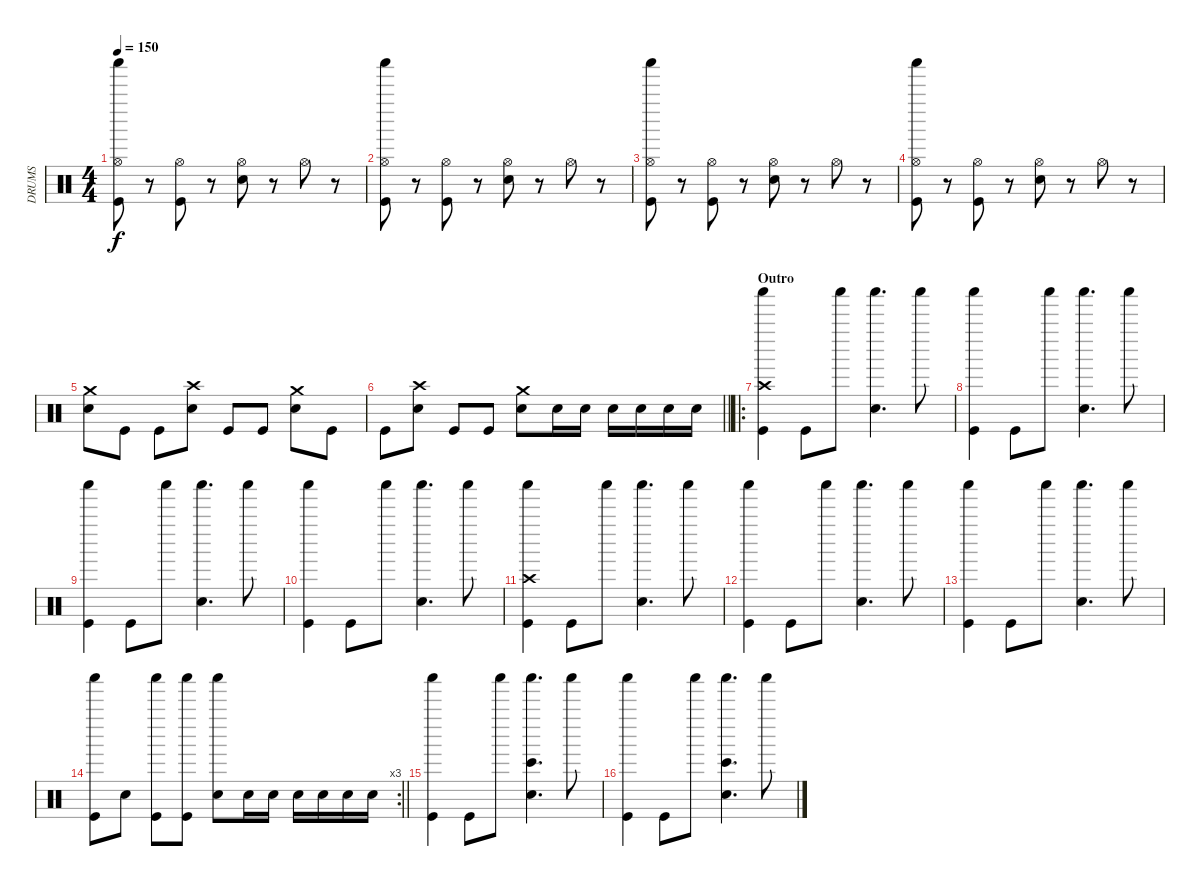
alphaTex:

\track ("DRUMS" "DRUMS") {instrument percussion}
\staff {score}
\articulation defaults
\ts (4 4)
\tempo 150
\clef neutral
\ks c
("Shaker (hit)" "Hi-Hat (open)" "Kick (hit)").8{dy f} r.8 ("Hi-Hat (open)" "Kick (hit)").8 r.8 ("Hi-Hat (open)" "Snare (hit) 2").8 r.8 "Hi-Hat (open)".8 r.8 |
("Shaker (hit)" "Hi-Hat (open)" "Kick (hit)").8 r.8 ("Hi-Hat (open)" "Kick (hit)").8 r.8 ("Hi-Hat (open)" "Snare (hit) 2").8 r.8 "Hi-Hat (open)".8 r.8 |
("Shaker (hit)" "Hi-Hat (open)" "Kick (hit)").8 r.8 ("Hi-Hat (open)" "Kick (hit)").8 r.8 ("Hi-Hat (open)" "Snare (hit) 2").8 r.8 "Hi-Hat (open)".8 r.8 |
("Shaker (hit)" "Hi-Hat (open)" "Kick (hit)").8 r.8 ("Hi-Hat (open)" "Kick (hit)").8 r.8 ("Hi-Hat (open)" "Snare (hit) 2").8 r.8 "Hi-Hat (open)".8 r.8 |
("Crash medium (hit)" "Snare (hit) 2").8 "Kick (hit)".8 "Kick (hit)".8 ("Crash high (hit)" "Snare (hit) 2").8 "Kick (hit)".8 "Kick (hit)".8 ("Crash medium (hit)" "Snare (hit) 2").8 "Kick (hit)".8 |
\barLineRight lightlight "Kick (hit)".8
("Crash high (hit)" "Snare (hit) 2").8 "Kick (hit)".8 "Kick (hit)".8 ("Crash medium (hit)" "Snare (hit) 2").8 "Snare (hit) 2".16 "Snare (hit) 2".16 "Snare (hit) 2".16 "Snare (hit) 2".16 "Snare (hit) 2".16 "Snare (hit) 2".16 |
\ro
\section ("" "Outro")
("Shaker (hit)" "Crash high (hit)" "Kick (hit)").4 "Kick (hit)".8 "Shaker (hit)".8 ("Shaker (hit)" "Snare (hit) 2").4{d} "Shaker (hit)".8 |
("Shaker (hit)" "Kick (hit)").4 "Kick (hit)".8 "Shaker (hit)".8 ("Shaker (hit)" "Snare (hit) 2").4{d} "Shaker (hit)".8 |
("Shaker (hit)" "Kick (hit)").4 "Kick (hit)".8 "Shaker (hit)".8 ("Shaker (hit)" "Snare (hit) 2").4{d} "Shaker (hit)".8 |
("Shaker (hit)" "Kick (hit)").4 "Kick (hit)".8 "Shaker (hit)".8 ("Shaker (hit)" "Snare (hit) 2").4{d} "Shaker (hit)".8 |
("Shaker (hit)" "Crash high (hit)" "Kick (hit)").4 "Kick (hit)".8 "Shaker (hit)".8 ("Shaker (hit)" "Snare (hit) 2").4{d} "Shaker (hit)".8 |
("Shaker (hit)" "Kick (hit)").4 "Kick (hit)".8 "Shaker (hit)".8 ("Shaker (hit)" "Snare (hit) 2").4{d} "Shaker (hit)".8 |
("Shaker (hit)" "Kick (hit)").4 "Kick (hit)".8 "Shaker (hit)".8 ("Shaker (hit)" "Snare (hit) 2").4{d} "Shaker (hit)".8 |
\rc 3
\barLineRight lightlight
("Shaker (hit)" "Kick (hit)").8 "Snare (hit) 2".8 ("Shaker (hit)" "Kick (hit)").8 ("Shaker (hit)" "Kick (hit)").8 ("Shaker (hit)" "Snare (hit) 2").8 "Snare (hit) 2".16 "Snare (hit) 2".16 "Snare (hit) 2".16 "Snare (hit) 2".16 "Snare (hit) 2".16 "Snare (hit) 2".16 |
("Shaker (hit)" "Kick (hit)").4 "Kick (hit)".8 "Shaker (hit)".8 ("Shaker (hit)" "Bongo High (hit)" "Snare (hit) 2").4{d} "Shaker (hit)".8 |
("Shaker (hit)" "Kick (hit)").4 "Kick (hit)".8 "Shaker (hit)".8 ("Shaker (hit)" "Bongo High (hit)" "Snare (hit) 2").4{d} "Shaker (hit)".8
